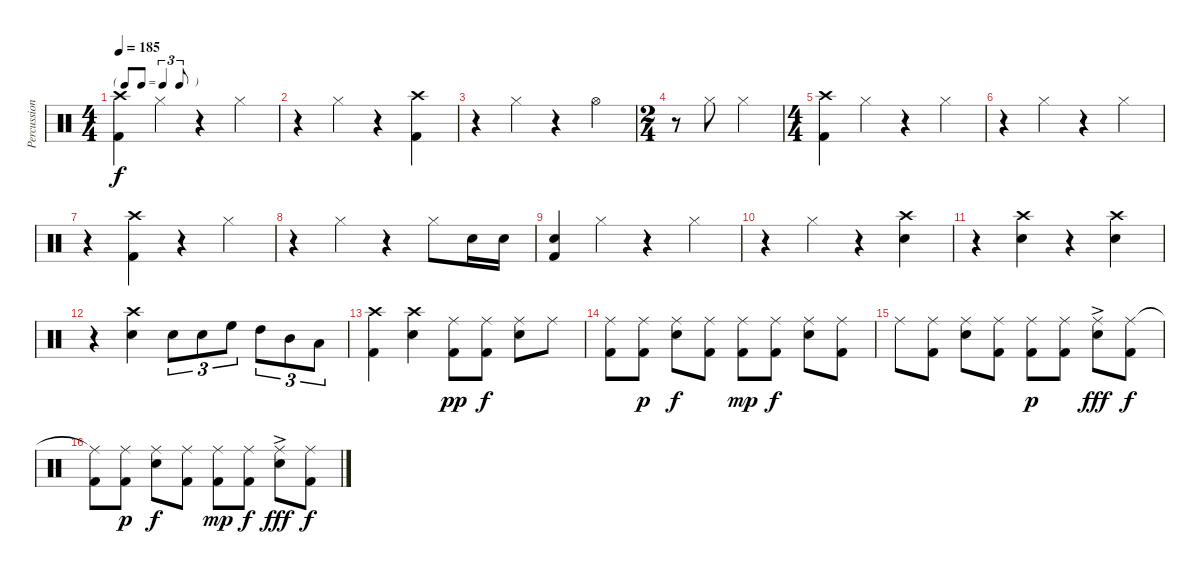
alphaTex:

\track ("Percussion" "Percussion") {instrument percussion}
\staff {score}
\articulation defaults
\ts (4 4)
\tf triplet8th
\tempo 185
\clef neutral
\ks c
("Kick (hit) 2" "Crash high (hit)").4{dy f} "Hi-Hat (closed)".4 r.4 "Hi-Hat (closed)".4 |
r.4 "Hi-Hat (closed)".4 r.4 ("Kick (hit) 2" "Crash high (hit)").4 |
r.4 "Hi-Hat (closed)".4 r.4 "Hi-Hat (open)".4 |
\ts (2 4)
r.8 "Hi-Hat (closed)".8 "Hi-Hat (closed)".4 |
\ts (4 4)
("Kick (hit) 2" "Crash high (hit)").4 "Hi-Hat (closed)".4 r.4 "Hi-Hat (closed)".4 |
r.4 "Hi-Hat (closed)".4 r.4 "Hi-Hat (closed)".4 |
r.4 ("Kick (hit) 2" "Crash high (hit)").4 r.4 "Hi-Hat (closed)".4 |
r.4 "Hi-Hat (closed)".4 r.4 "Hi-Hat (closed)".8 "Snare (hit) 2".16 "Snare (hit) 2".16 |
("Kick (hit) 2" "Snare (hit) 2").4 "Hi-Hat (closed)".4 r.4 "Hi-Hat (closed)".4 |
r.4 "Hi-Hat (closed)".4 r.4 ("Snare (hit) 2" "Crash high (hit)").4 |
r.4 ("Snare (hit) 2" "Crash high (hit)").4 r.4 ("Snare (hit) 2" "Crash high (hit)").4 |
r.4 ("Snare (hit) 2" "Crash high (hit)").4 "Snare (hit) 2".8{tu (3 2)} "Snare (hit) 2".8{tu (3 2)} "High Floor Tom (hit)".8{tu (3 2)} "High Tom (hit)".8{tu (3 2)} "Mid Tom (hit)".8{tu (3 2)} "Low Tom (hit)".8{tu (3 2)} |
("Kick (hit) 2" "Crash high (hit)").4 ("Snare (hit) 2" "Crash high (hit)").4 ("Kick (hit) 2" "Ride (middle)").8{dy pp} ("Kick (hit) 2" "Ride (middle)").8{dy f} ("Snare (hit) 2" "Ride (middle)").8 "Ride (middle)".8 |
("Kick (hit) 2" "Ride (middle)").8 ("Kick (hit) 2" "Ride (middle)").8{dy p} ("Snare (hit) 2" "Ride (middle)").8{dy f} ("Kick (hit) 2" "Ride (middle)").8 ("Kick (hit) 2" "Ride (middle)").8{dy mp} ("Kick (hit) 2" "Ride (middle)").8{dy f} ("Snare (hit) 2" "Ride (middle)").8 ("Kick (hit) 2" "Ride (middle)").8 |
"Ride (middle)".8 ("Kick (hit) 2" "Ride (middle)").8 ("Snare (hit) 2" "Ride (middle)").8 ("Kick (hit) 2" "Ride (middle)").8 ("Kick (hit) 2" "Ride (middle)").8{dy p} ("Kick (hit) 2" "Ride (middle)").8 ("Snare (hit) 2" "Ride (middle)"{ac}).8{dy fff} ("Kick (hit) 2" "Ride (middle)").8{dy f} |
("Kick (hit) 2" "Ride (middle)"{t}).8 ("Kick (hit) 2" "Ride (middle)").8{dy p} ("Snare (hit) 2" "Ride (middle)").8{dy f} ("Kick (hit) 2" "Ride (middle)").8 ("Kick (hit) 2" "Ride (middle)").8{dy mp} ("Kick (hit) 2" "Ride (middle)").8{dy f} ("Snare (hit) 2" "Ride (middle)"{ac}).8{dy fff} ("Kick (hit) 2" "Ride (middle)").8{dy f}
